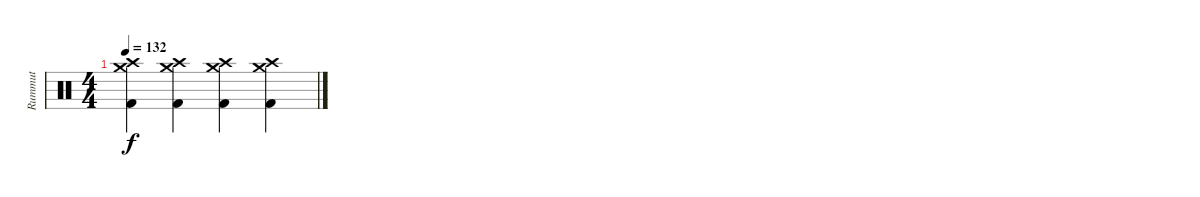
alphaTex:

\track ("Rummut" "Rummut") {instrument percussion}
\staff {score}
\articulation defaults
\ts (4 4)
\tempo 132
\clef neutral
\ks c
("Crash medium (hit)" "Crash high (hit)" "Kick (hit) 2").4{dy f} ("Crash medium (hit)" "Crash high (hit)" "Kick (hit) 2").4 ("Crash medium (hit)" "Crash high (hit)" "Kick (hit) 2").4 ("Crash medium (hit)" "Crash high (hit)" "Kick (hit) 2").4
